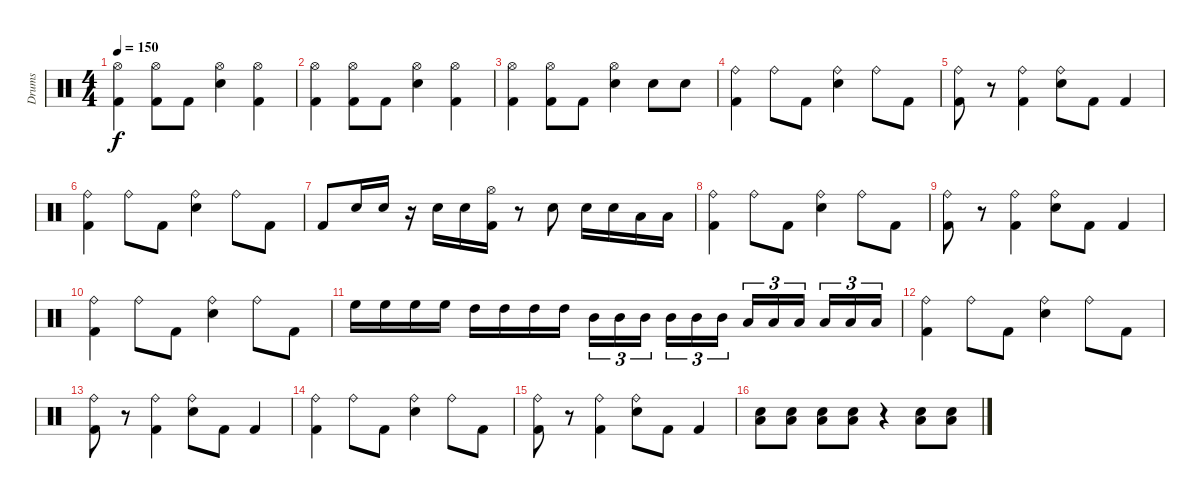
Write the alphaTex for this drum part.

\track ("Drums" "Drums") {instrument percussion}
\staff {score}
\articulation defaults
\ts (4 4)
\tempo 150
\clef neutral
\ks c
("Hi-Hat (open)" "Kick (hit) 2").4{dy f} ("Hi-Hat (open)" "Kick (hit) 2").8 "Kick (hit) 2".8 ("Hi-Hat (open)" "Electric Snare (hit)").4 ("Hi-Hat (open)" "Kick (hit) 2").4 |
("Hi-Hat (open)" "Kick (hit) 2").4 ("Hi-Hat (open)" "Kick (hit) 2").8 "Kick (hit) 2".8 ("Hi-Hat (open)" "Electric Snare (hit)").4 ("Hi-Hat (open)" "Kick (hit) 2").4 |
("Hi-Hat (open)" "Kick (hit) 2").4 ("Hi-Hat (open)" "Kick (hit) 2").8 "Kick (hit) 2".8 ("Hi-Hat (open)" "Electric Snare (hit)").4 "Electric Snare (hit)".8 "Electric Snare (hit)".8 |
("Ride (bell)" "Kick (hit) 2").4 "Ride (bell)".8 "Kick (hit) 2".8 ("Ride (bell)" "Electric Snare (hit)").4 "Ride (bell)".8 "Kick (hit) 2".8 |
("Ride (bell)" "Kick (hit) 2").8 r.8 ("Ride (bell)" "Kick (hit) 2").4 ("Ride (bell)" "Electric Snare (hit)").8 "Kick (hit) 2".8 "Kick (hit) 2".4 |
("Ride (bell)" "Kick (hit) 2").4 "Ride (bell)".8 "Kick (hit) 2".8 ("Ride (bell)" "Electric Snare (hit)").4 "Ride (bell)".8 "Kick (hit) 2".8 |
"Kick (hit) 2".8 "Electric Snare (hit)".16 "Electric Snare (hit)".16 r.16 "Electric Snare (hit)".16 "Electric Snare (hit)".16 ("Hi-Hat (open)" "Kick (hit) 2").16 r.8 "Electric Snare (hit)".8 "Electric Snare (hit)".16 "Electric Snare (hit)".16 "Low Tom (hit)".16 "Low Tom (hit)".16 |
("Ride (bell)" "Kick (hit) 2").4 "Ride (bell)".8 "Kick (hit) 2".8 ("Ride (bell)" "Electric Snare (hit)").4 "Ride (bell)".8 "Kick (hit) 2".8 |
("Ride (bell)" "Kick (hit) 2").8 r.8 ("Ride (bell)" "Kick (hit) 2").4 ("Ride (bell)" "Electric Snare (hit)").8 "Kick (hit) 2".8 "Kick (hit) 2".4 |
("Ride (bell)" "Kick (hit) 2").4 "Ride (bell)".8 "Kick (hit) 2".8 ("Ride (bell)" "Electric Snare (hit)").4 "Ride (bell)".8 "Kick (hit) 2".8 |
"High Floor Tom (hit)".16 "High Floor Tom (hit)".16 "High Floor Tom (hit)".16 "High Floor Tom (hit)".16 "High Tom (hit)".16 "High Tom (hit)".16 "High Tom (hit)".16 "High Tom (hit)".16 "Mid Tom (hit)".16{tu (3 2)} "Mid Tom (hit)".16{tu (3 2)} "Mid Tom (hit)".16{tu (3 2)} "Mid Tom (hit)".16{tu (3 2)} "Mid Tom (hit)".16{tu (3 2)} "Mid Tom (hit)".16{tu (3 2)} "Low Tom (hit)".16{tu (3 2)} "Low Tom (hit)".16{tu (3 2)} "Low Tom (hit)".16{tu (3 2)} "Low Tom (hit)".16{tu (3 2)} "Low Tom (hit)".16{tu (3 2)} "Low Tom (hit)".16{tu (3 2)} |
("Ride (bell)" "Kick (hit) 2").4 "Ride (bell)".8 "Kick (hit) 2".8 ("Ride (bell)" "Electric Snare (hit)").4 "Ride (bell)".8 "Kick (hit) 2".8 |
("Ride (bell)" "Kick (hit) 2").8 r.8 ("Ride (bell)" "Kick (hit) 2").4 ("Ride (bell)" "Electric Snare (hit)").8 "Kick (hit) 2".8 "Kick (hit) 2".4 |
("Ride (bell)" "Kick (hit) 2").4 "Ride (bell)".8 "Kick (hit) 2".8 ("Ride (bell)" "Electric Snare (hit)").4 "Ride (bell)".8 "Kick (hit) 2".8 |
("Ride (bell)" "Kick (hit) 2").8 r.8 ("Ride (bell)" "Kick (hit) 2").4 ("Ride (bell)" "Electric Snare (hit)").8 "Kick (hit) 2".8 "Kick (hit) 2".4 |
("Electric Snare (hit)" "Low Floor Tom (hit)").8 ("Electric Snare (hit)" "Low Floor Tom (hit)").8 ("Electric Snare (hit)" "Low Floor Tom (hit)").8 ("Electric Snare (hit)" "Low Floor Tom (hit)").8 r.4 ("Electric Snare (hit)" "Low Floor Tom (hit)").8 ("Electric Snare (hit)" "Low Floor Tom (hit)").8
